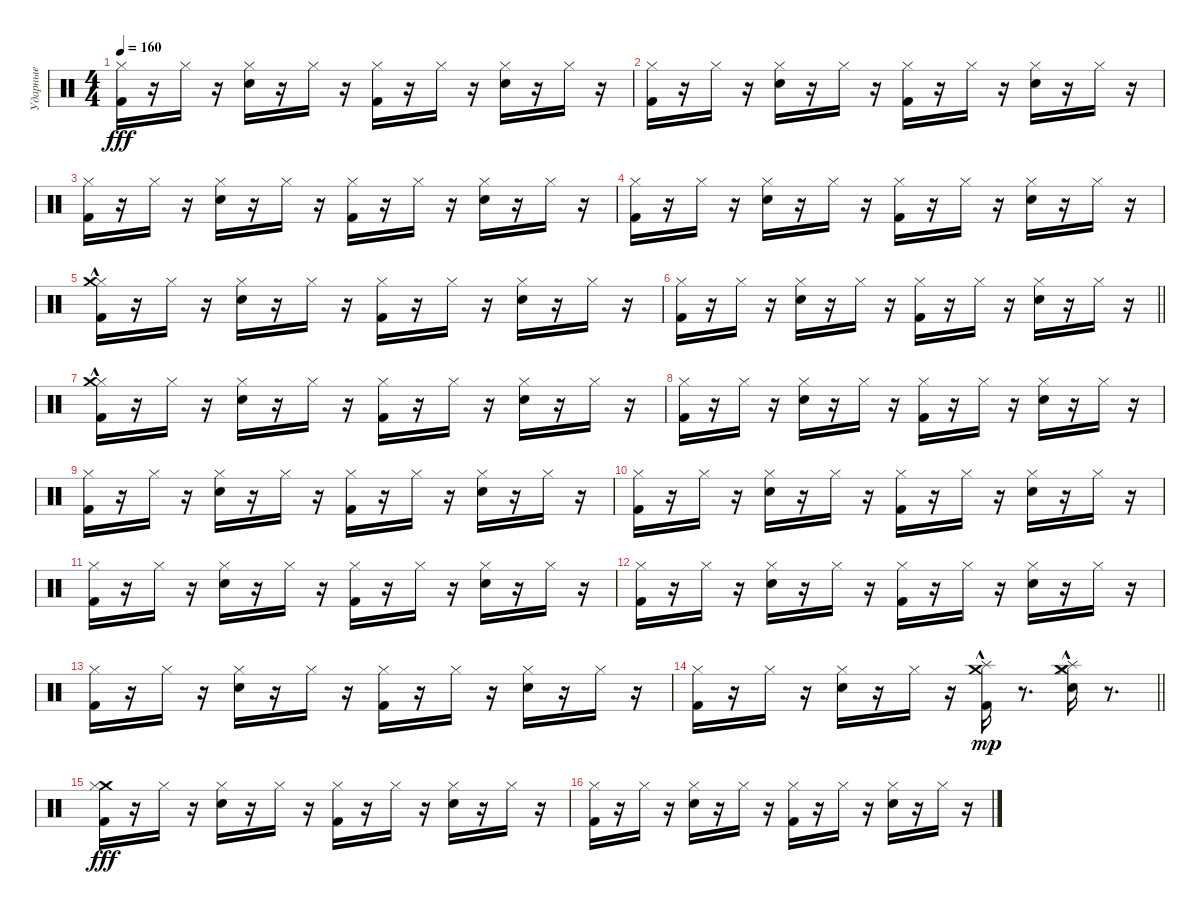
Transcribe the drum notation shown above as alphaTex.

\track ("Ударные" "Ударные") {instrument percussion}
\staff {score}
\articulation defaults
\ts (4 4)
\tempo 160
\clef neutral
\ks c
("Hi-Hat (closed)" "Kick (hit) 2").16{dy fff} r.16 "Hi-Hat (closed)".16 r.16 ("Hi-Hat (closed)" "Electric Snare (hit)").16 r.16 "Hi-Hat (closed)".16 r.16 ("Hi-Hat (closed)" "Kick (hit) 2").16 r.16 "Hi-Hat (closed)".16 r.16 ("Hi-Hat (closed)" "Electric Snare (hit)").16 r.16 "Hi-Hat (closed)".16 r.16 |
("Hi-Hat (closed)" "Kick (hit) 2").16 r.16 "Hi-Hat (closed)".16 r.16 ("Hi-Hat (closed)" "Electric Snare (hit)").16 r.16 "Hi-Hat (closed)".16 r.16 ("Hi-Hat (closed)" "Kick (hit) 2").16 r.16 "Hi-Hat (closed)".16 r.16 ("Hi-Hat (closed)" "Electric Snare (hit)").16 r.16 "Hi-Hat (closed)".16 r.16 |
("Hi-Hat (closed)" "Kick (hit) 2").16 r.16 "Hi-Hat (closed)".16 r.16 ("Hi-Hat (closed)" "Electric Snare (hit)").16 r.16 "Hi-Hat (closed)".16 r.16 ("Hi-Hat (closed)" "Kick (hit) 2").16 r.16 "Hi-Hat (closed)".16 r.16 ("Hi-Hat (closed)" "Electric Snare (hit)").16 r.16 "Hi-Hat (closed)".16 r.16 |
("Hi-Hat (closed)" "Kick (hit) 2").16 r.16 "Hi-Hat (closed)".16 r.16 ("Hi-Hat (closed)" "Electric Snare (hit)").16 r.16 "Hi-Hat (closed)".16 r.16 ("Hi-Hat (closed)" "Kick (hit) 2").16 r.16 "Hi-Hat (closed)".16 r.16 ("Hi-Hat (closed)" "Electric Snare (hit)").16 r.16 "Hi-Hat (closed)".16 r.16 |
("Hi-Hat (closed)" "Kick (hit) 2" "Crash medium (hit)"{hac}).16 r.16 "Hi-Hat (closed)".16 r.16 ("Hi-Hat (closed)" "Electric Snare (hit)").16 r.16 "Hi-Hat (closed)".16 r.16 ("Hi-Hat (closed)" "Kick (hit) 2").16 r.16 "Hi-Hat (closed)".16 r.16 ("Hi-Hat (closed)" "Electric Snare (hit)").16 r.16 "Hi-Hat (closed)".16 r.16 |
\barLineRight lightlight
("Hi-Hat (closed)" "Kick (hit) 2").16 r.16 "Hi-Hat (closed)".16 r.16 ("Hi-Hat (closed)" "Electric Snare (hit)").16 r.16 "Hi-Hat (closed)".16 r.16 ("Hi-Hat (closed)" "Kick (hit) 2").16 r.16 "Hi-Hat (closed)".16 r.16 ("Hi-Hat (closed)" "Electric Snare (hit)").16 r.16 "Hi-Hat (closed)".16 r.16 |
("Hi-Hat (closed)" "Kick (hit) 2" "Crash medium (hit)"{hac}).16 r.16 "Hi-Hat (closed)".16 r.16 ("Hi-Hat (closed)" "Electric Snare (hit)").16 r.16 "Hi-Hat (closed)".16 r.16 ("Hi-Hat (closed)" "Kick (hit) 2").16 r.16 "Hi-Hat (closed)".16 r.16 ("Hi-Hat (closed)" "Electric Snare (hit)").16 r.16 "Hi-Hat (closed)".16 r.16 |
("Hi-Hat (closed)" "Kick (hit) 2").16 r.16 "Hi-Hat (closed)".16 r.16 ("Hi-Hat (closed)" "Electric Snare (hit)").16 r.16 "Hi-Hat (closed)".16 r.16 ("Hi-Hat (closed)" "Kick (hit) 2").16 r.16 "Hi-Hat (closed)".16 r.16 ("Hi-Hat (closed)" "Electric Snare (hit)").16 r.16 "Hi-Hat (closed)".16 r.16 |
("Hi-Hat (closed)" "Kick (hit) 2").16 r.16 "Hi-Hat (closed)".16 r.16 ("Hi-Hat (closed)" "Electric Snare (hit)").16 r.16 "Hi-Hat (closed)".16 r.16 ("Hi-Hat (closed)" "Kick (hit) 2").16 r.16 "Hi-Hat (closed)".16 r.16 ("Hi-Hat (closed)" "Electric Snare (hit)").16 r.16 "Hi-Hat (closed)".16 r.16 |
("Hi-Hat (closed)" "Kick (hit) 2").16 r.16 "Hi-Hat (closed)".16 r.16 ("Hi-Hat (closed)" "Electric Snare (hit)").16 r.16 "Hi-Hat (closed)".16 r.16 ("Hi-Hat (closed)" "Kick (hit) 2").16 r.16 "Hi-Hat (closed)".16 r.16 ("Hi-Hat (closed)" "Electric Snare (hit)").16 r.16 "Hi-Hat (closed)".16 r.16 |
("Hi-Hat (closed)" "Kick (hit) 2").16 r.16 "Hi-Hat (closed)".16 r.16 ("Hi-Hat (closed)" "Electric Snare (hit)").16 r.16 "Hi-Hat (closed)".16 r.16 ("Hi-Hat (closed)" "Kick (hit) 2").16 r.16 "Hi-Hat (closed)".16 r.16 ("Hi-Hat (closed)" "Electric Snare (hit)").16 r.16 "Hi-Hat (closed)".16 r.16 |
("Hi-Hat (closed)" "Kick (hit) 2").16 r.16 "Hi-Hat (closed)".16 r.16 ("Hi-Hat (closed)" "Electric Snare (hit)").16 r.16 "Hi-Hat (closed)".16 r.16 ("Hi-Hat (closed)" "Kick (hit) 2").16 r.16 "Hi-Hat (closed)".16 r.16 ("Hi-Hat (closed)" "Electric Snare (hit)").16 r.16 "Hi-Hat (closed)".16 r.16 |
("Hi-Hat (closed)" "Kick (hit) 2").16 r.16 "Hi-Hat (closed)".16 r.16 ("Hi-Hat (closed)" "Electric Snare (hit)").16 r.16 "Hi-Hat (closed)".16 r.16 ("Hi-Hat (closed)" "Kick (hit) 2").16 r.16 "Hi-Hat (closed)".16 r.16 ("Hi-Hat (closed)" "Electric Snare (hit)").16 r.16 "Hi-Hat (closed)".16 r.16 |
\barLineRight lightlight
("Hi-Hat (closed)" "Kick (hit) 2").16 r.16 "Hi-Hat (closed)".16 r.16 ("Hi-Hat (closed)" "Electric Snare (hit)").16 r.16 "Hi-Hat (closed)".16 r.16 ("Kick (hit) 2" "Crash medium (hit)"{hac} "Splash (hit)").16{dy mp} r.8{d} ("Hi-Hat (closed)" "Electric Snare (hit)" "Crash medium (hit)"{hac} "Splash (hit)").16 r.8{d} |
("Crash medium (hit)" "Hi-Hat (closed)" "Kick (hit) 2").16{dy fff} r.16 "Hi-Hat (closed)".16 r.16 ("Hi-Hat (closed)" "Electric Snare (hit)").16 r.16 "Hi-Hat (closed)".16 r.16 ("Hi-Hat (closed)" "Kick (hit) 2").16 r.16 "Hi-Hat (closed)".16 r.16 ("Hi-Hat (closed)" "Electric Snare (hit)").16 r.16 "Hi-Hat (closed)".16 r.16 |
("Hi-Hat (closed)" "Kick (hit) 2").16 r.16 "Hi-Hat (closed)".16 r.16 ("Hi-Hat (closed)" "Electric Snare (hit)").16 r.16 "Hi-Hat (closed)".16 r.16 ("Hi-Hat (closed)" "Kick (hit) 2").16 r.16 "Hi-Hat (closed)".16 r.16 ("Hi-Hat (closed)" "Electric Snare (hit)").16 r.16 "Hi-Hat (closed)".16 r.16
